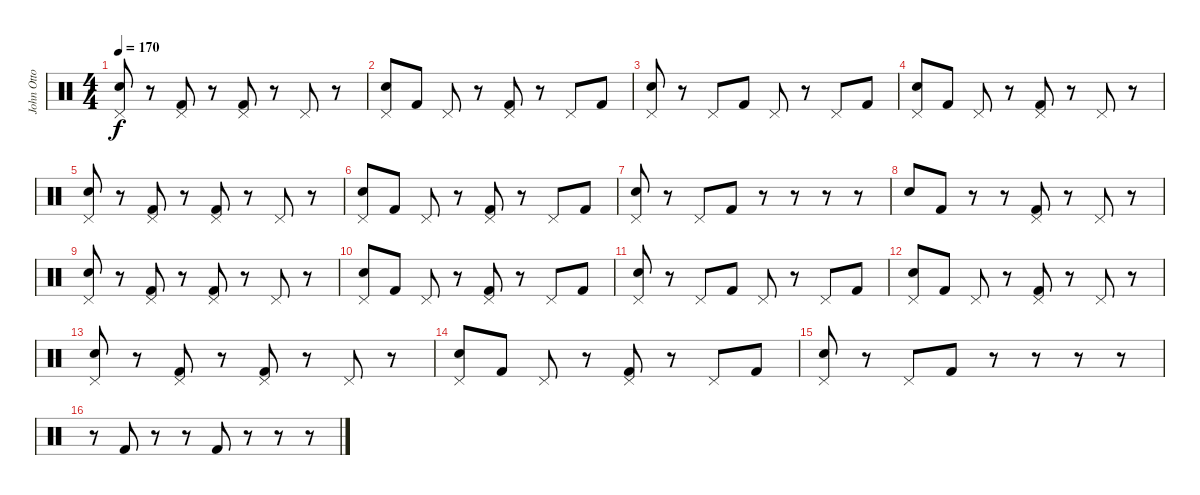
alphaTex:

\track ("John Otto" "John Otto") {instrument percussion}
\staff {score}
\articulation defaults
\ts (4 4)
\tempo 170
\clef neutral
\ks c
("Pedal Hi-Hat (hit)" "Snare (hit) 2").8{dy f} r.8 ("Pedal Hi-Hat (hit)" "Kick (hit) 2").8 r.8 ("Pedal Hi-Hat (hit)" "Kick (hit) 2").8 r.8 "Pedal Hi-Hat (hit)".8 r.8 |
("Pedal Hi-Hat (hit)" "Snare (hit) 2").8 "Kick (hit) 2".8 "Pedal Hi-Hat (hit)".8 r.8 ("Pedal Hi-Hat (hit)" "Kick (hit) 2").8 r.8 "Pedal Hi-Hat (hit)".8 "Kick (hit) 2".8 |
("Pedal Hi-Hat (hit)" "Snare (hit) 2").8 r.8 "Pedal Hi-Hat (hit)".8 "Kick (hit) 2".8 "Pedal Hi-Hat (hit)".8 r.8 "Pedal Hi-Hat (hit)".8 "Kick (hit) 2".8 |
("Pedal Hi-Hat (hit)" "Snare (hit) 2").8 "Kick (hit) 2".8 "Pedal Hi-Hat (hit)".8 r.8 ("Pedal Hi-Hat (hit)" "Kick (hit) 2").8 r.8 "Pedal Hi-Hat (hit)".8 r.8 |
("Pedal Hi-Hat (hit)" "Snare (hit) 2").8 r.8 ("Pedal Hi-Hat (hit)" "Kick (hit) 2").8 r.8 ("Pedal Hi-Hat (hit)" "Kick (hit) 2").8 r.8 "Pedal Hi-Hat (hit)".8 r.8 |
("Pedal Hi-Hat (hit)" "Snare (hit) 2").8 "Kick (hit) 2".8 "Pedal Hi-Hat (hit)".8 r.8 ("Pedal Hi-Hat (hit)" "Kick (hit) 2").8 r.8 "Pedal Hi-Hat (hit)".8 "Kick (hit) 2".8 |
("Pedal Hi-Hat (hit)" "Snare (hit) 2").8 r.8 "Pedal Hi-Hat (hit)".8 "Kick (hit) 2".8 r.8 r.8 r.8 r.8 |
"Snare (hit) 2".8 "Kick (hit) 2".8 r.8 r.8 ("Pedal Hi-Hat (hit)" "Kick (hit) 2").8 r.8 "Pedal Hi-Hat (hit)".8 r.8 |
("Pedal Hi-Hat (hit)" "Snare (hit) 2").8 r.8 ("Pedal Hi-Hat (hit)" "Kick (hit) 2").8 r.8 ("Pedal Hi-Hat (hit)" "Kick (hit) 2").8 r.8 "Pedal Hi-Hat (hit)".8 r.8 |
("Pedal Hi-Hat (hit)" "Snare (hit) 2").8 "Kick (hit) 2".8 "Pedal Hi-Hat (hit)".8 r.8 ("Pedal Hi-Hat (hit)" "Kick (hit) 2").8 r.8 "Pedal Hi-Hat (hit)".8 "Kick (hit) 2".8 |
("Pedal Hi-Hat (hit)" "Snare (hit) 2").8 r.8 "Pedal Hi-Hat (hit)".8 "Kick (hit) 2".8 "Pedal Hi-Hat (hit)".8 r.8 "Pedal Hi-Hat (hit)".8 "Kick (hit) 2".8 |
("Pedal Hi-Hat (hit)" "Snare (hit) 2").8 "Kick (hit) 2".8 "Pedal Hi-Hat (hit)".8 r.8 ("Pedal Hi-Hat (hit)" "Kick (hit) 2").8 r.8 "Pedal Hi-Hat (hit)".8 r.8 |
("Pedal Hi-Hat (hit)" "Snare (hit) 2").8 r.8 ("Pedal Hi-Hat (hit)" "Kick (hit) 2").8 r.8 ("Pedal Hi-Hat (hit)" "Kick (hit) 2").8 r.8 "Pedal Hi-Hat (hit)".8 r.8 |
("Pedal Hi-Hat (hit)" "Snare (hit) 2").8 "Kick (hit) 2".8 "Pedal Hi-Hat (hit)".8 r.8 ("Pedal Hi-Hat (hit)" "Kick (hit) 2").8 r.8 "Pedal Hi-Hat (hit)".8 "Kick (hit) 2".8 |
("Pedal Hi-Hat (hit)" "Snare (hit) 2").8 r.8 "Pedal Hi-Hat (hit)".8 "Kick (hit) 2".8 r.8 r.8 r.8 r.8 |
r.8 "Kick (hit) 2".8 r.8 r.8 "Kick (hit) 2".8 r.8 r.8 r.8
